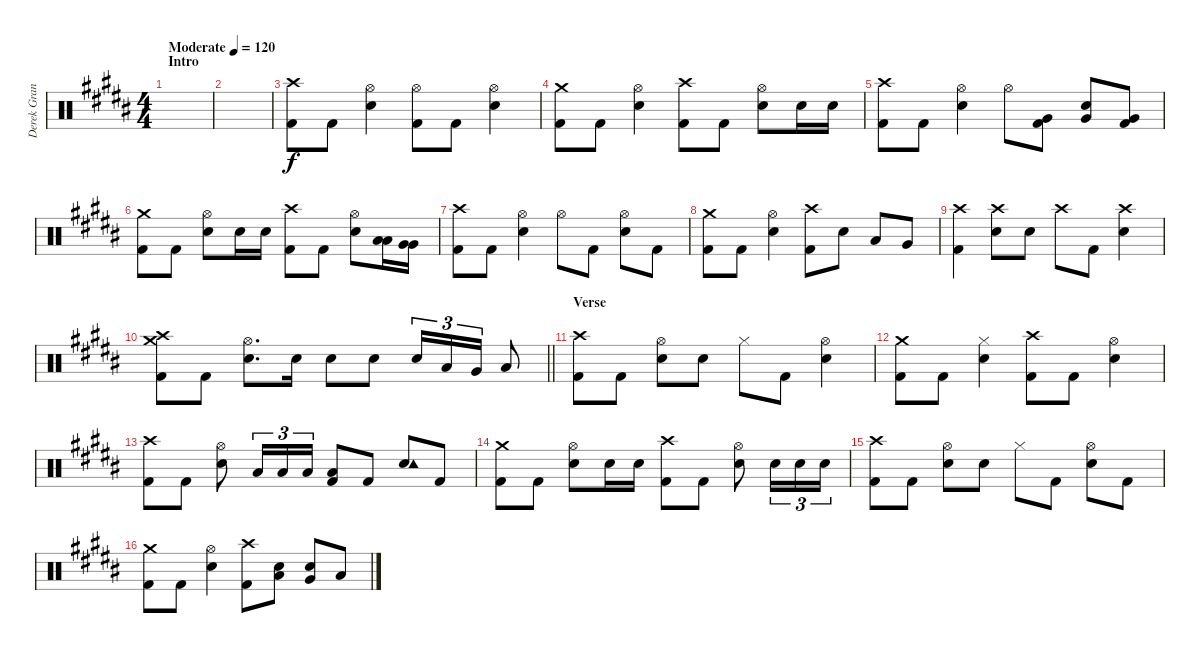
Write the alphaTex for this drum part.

\track ("Derek Grant - Drums" "Derek Gran") {instrument percussion}
\staff {score}
\articulation defaults
\ts (4 4)
\section ("" "Intro")
\tempo (120 "Moderate")
\clef neutral
\ks b
|
|
("Crash high (hit)" "Kick (hit) 2").8 "Kick (hit) 2".8 ("Snare (hit) 2" "Hi-Hat (open)").4 ("Hi-Hat (open)" "Kick (hit) 2").8 "Kick (hit) 2".8 ("Snare (hit) 2" "Hi-Hat (open)").4 |
("Crash medium (hit)" "Kick (hit) 2").8 "Kick (hit) 2".8 ("Snare (hit) 2" "Hi-Hat (open)").4 ("Crash high (hit)" "Kick (hit) 2").8 "Kick (hit) 2".8 ("Snare (hit) 2" "Hi-Hat (open)").8 "Snare (hit) 2".16 "Snare (hit) 2".16 |
("Crash high (hit)" "Kick (hit) 2").8 "Kick (hit) 2".8 ("Snare (hit) 2" "Hi-Hat (open)").4 "Hi-Hat (open)".8 ("Kick (hit) 2" "Very Low Tom (hit)").8 ("Snare (hit) 2" "Very Low Tom (hit)").8 ("Kick (hit) 2" "Very Low Tom (hit)").8 |
("Crash medium (hit)" "Kick (hit) 2").8 "Kick (hit) 2".8 ("Snare (hit) 2" "Hi-Hat (open)").8 "Snare (hit) 2".16 "Snare (hit) 2".16 ("Crash high (hit)" "Kick (hit) 2").8 "Kick (hit) 2".8 ("Snare (hit) 2" "Hi-Hat (open)").8 ("Low Tom (hit)" "Low Tom (hit)").16 ("Very Low Tom (hit)" "Very Low Tom (hit)").16 |
("Crash high (hit)" "Kick (hit) 2").8 "Kick (hit) 2".8 ("Snare (hit) 2" "Hi-Hat (open)").4 "Hi-Hat (open)".8 "Kick (hit) 2".8 ("Snare (hit) 2" "Hi-Hat (open)").8 "Kick (hit) 2".8 |
("Crash medium (hit)" "Kick (hit) 2").8 "Kick (hit) 2".8 ("Snare (hit) 2" "Hi-Hat (open)").4 ("Crash high (hit)" "Kick (hit) 2").8 "Snare (hit) 2".8 "Low Tom (hit)".8 "Very Low Tom (hit)".8 |
("Kick (hit) 2" "Crash high (hit)").4 ("Snare (hit) 2" "Crash high (hit)").8 "Snare (hit) 2".8 "Crash high (hit)".8 "Kick (hit) 2".8 ("Snare (hit) 2" "Crash high (hit)").4 |
\barLineRight lightlight
("Kick (hit) 2" "Crash high (hit)" "Crash medium (hit)").8 "Kick (hit) 2".8 ("Snare (hit) 2" "Hi-Hat (open)").8{d} "Snare (hit) 2".16 "Snare (hit) 2".8 "Snare (hit) 2".8 "Snare (hit) 2".16{tu (3 2)} "Low Tom (hit)".16{tu (3 2)} "Very Low Tom (hit)".16{tu (3 2)} "Low Floor Tom (hit)".8 |
\section ("" "Verse")
("Kick (hit) 2" "Crash high (hit)").8 "Kick (hit) 2".8 ("Snare (hit) 2" "Hi-Hat (open)").8 "Snare (hit) 2".8 "Hi-Hat (closed)".8 "Kick (hit) 2".8 ("Snare (hit) 2" "Hi-Hat (open)").4 |
("Kick (hit) 2" "Crash medium (hit)").8 "Kick (hit) 2".8 ("Snare (hit) 2" "Hi-Hat (closed)").4 ("Kick (hit) 2" "Crash high (hit)").8 "Kick (hit) 2".8 ("Snare (hit) 2" "Hi-Hat (open)").4 |
("Kick (hit) 2" "Crash high (hit)").8 "Kick (hit) 2".8 ("Snare (hit) 2" "Hi-Hat (open)").8 "Low Tom (hit)".16{tu (3 2)} "Low Tom (hit)".16{tu (3 2)} "Low Tom (hit)".16{tu (3 2)} ("Kick (hit) 2" "Low Tom (hit)").8 "Kick (hit) 2".8 ("Snare (hit) 2" "Tambourine (hit)").8 "Kick (hit) 2".8 |
("Kick (hit) 2" "Crash medium (hit)").8 "Kick (hit) 2".8 ("Snare (hit) 2" "Hi-Hat (open)").8 "Snare (hit) 2".16 "Snare (hit) 2".16 ("Kick (hit) 2" "Crash high (hit)").8 "Kick (hit) 2".8 ("Snare (hit) 2" "Hi-Hat (open)").8 "Snare (hit) 2".16{tu (3 2)} "Snare (hit) 2".16{tu (3 2)} "Snare (hit) 2".16{tu (3 2)} |
("Kick (hit) 2" "Crash high (hit)").8 "Kick (hit) 2".8 ("Snare (hit) 2" "Hi-Hat (open)").8 "Snare (hit) 2".8 "Hi-Hat (closed)".8 "Kick (hit) 2".8 ("Snare (hit) 2" "Hi-Hat (open)").8 "Kick (hit) 2".8 |
("Kick (hit) 2" "Crash medium (hit)").8 "Kick (hit) 2".8 ("Snare (hit) 2" "Hi-Hat (open)").4 ("Kick (hit) 2" "Crash high (hit)").8 ("Snare (hit) 2" "Low Tom (hit)").8 ("Snare (hit) 2" "Very Low Tom (hit)").8 "Low Floor Tom (hit)".8
